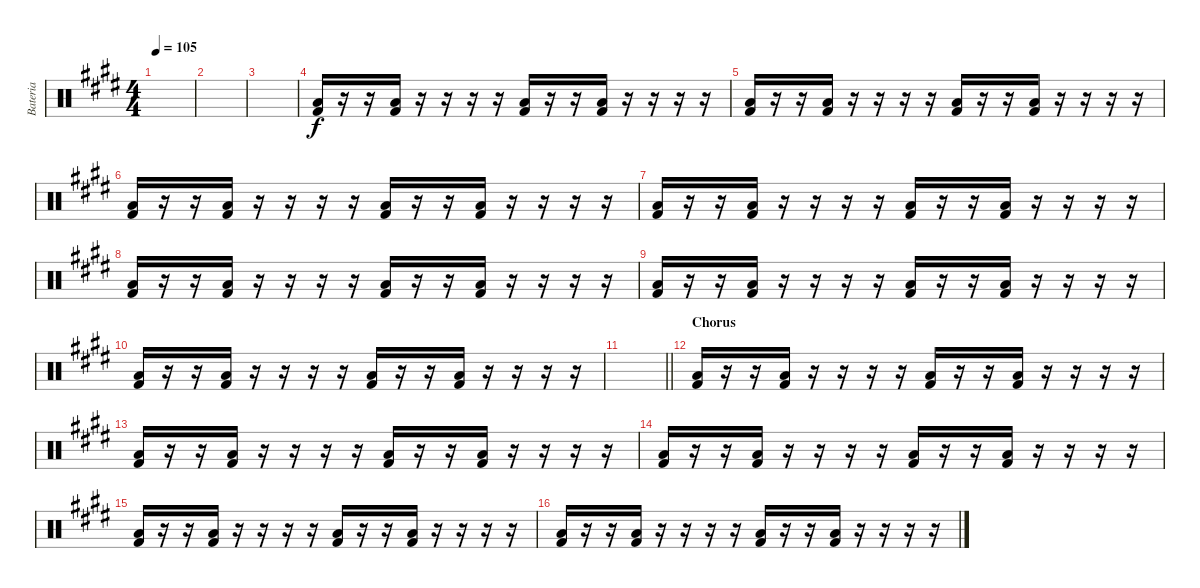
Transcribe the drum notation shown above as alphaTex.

\track ("Bateria" "Bateria") {instrument percussion}
\staff {score}
\articulation defaults
\ts (4 4)
\tempo 105
\clef neutral
\ks c#minor
|
|
|
("Low Floor Tom (hit)" "Kick (hit) 2").16 r.16 r.16 ("Low Floor Tom (hit)" "Kick (hit) 2").16 r.16 r.16 r.16 r.16 ("Low Floor Tom (hit)" "Kick (hit) 2").16 r.16 r.16 ("Low Floor Tom (hit)" "Kick (hit) 2").16 r.16 r.16 r.16 r.16 |
("Low Floor Tom (hit)" "Kick (hit) 2").16 r.16 r.16 ("Low Floor Tom (hit)" "Kick (hit) 2").16 r.16 r.16 r.16 r.16 ("Low Floor Tom (hit)" "Kick (hit) 2").16 r.16 r.16 ("Low Floor Tom (hit)" "Kick (hit) 2").16 r.16 r.16 r.16 r.16 |
("Low Floor Tom (hit)" "Kick (hit) 2").16 r.16 r.16 ("Low Floor Tom (hit)" "Kick (hit) 2").16 r.16 r.16 r.16 r.16 ("Low Floor Tom (hit)" "Kick (hit) 2").16 r.16 r.16 ("Low Floor Tom (hit)" "Kick (hit) 2").16 r.16 r.16 r.16 r.16 |
("Low Floor Tom (hit)" "Kick (hit) 2").16 r.16 r.16 ("Low Floor Tom (hit)" "Kick (hit) 2").16 r.16 r.16 r.16 r.16 ("Low Floor Tom (hit)" "Kick (hit) 2").16 r.16 r.16 ("Low Floor Tom (hit)" "Kick (hit) 2").16 r.16 r.16 r.16 r.16 |
("Low Floor Tom (hit)" "Kick (hit) 2").16 r.16 r.16 ("Low Floor Tom (hit)" "Kick (hit) 2").16 r.16 r.16 r.16 r.16 ("Low Floor Tom (hit)" "Kick (hit) 2").16 r.16 r.16 ("Low Floor Tom (hit)" "Kick (hit) 2").16 r.16 r.16 r.16 r.16 |
("Low Floor Tom (hit)" "Kick (hit) 2").16 r.16 r.16 ("Low Floor Tom (hit)" "Kick (hit) 2").16 r.16 r.16 r.16 r.16 ("Low Floor Tom (hit)" "Kick (hit) 2").16 r.16 r.16 ("Low Floor Tom (hit)" "Kick (hit) 2").16 r.16 r.16 r.16 r.16 |
("Low Floor Tom (hit)" "Kick (hit) 2").16 r.16 r.16 ("Low Floor Tom (hit)" "Kick (hit) 2").16 r.16 r.16 r.16 r.16 ("Low Floor Tom (hit)" "Kick (hit) 2").16 r.16 r.16 ("Low Floor Tom (hit)" "Kick (hit) 2").16 r.16 r.16 r.16 r.16 |
\barLineRight lightlight
|
\section ("" "Chorus")
("Low Floor Tom (hit)" "Kick (hit) 2").16 r.16 r.16 ("Low Floor Tom (hit)" "Kick (hit) 2").16 r.16 r.16 r.16 r.16 ("Low Floor Tom (hit)" "Kick (hit) 2").16 r.16 r.16 ("Low Floor Tom (hit)" "Kick (hit) 2").16 r.16 r.16 r.16 r.16 |
("Low Floor Tom (hit)" "Kick (hit) 2").16 r.16 r.16 ("Low Floor Tom (hit)" "Kick (hit) 2").16 r.16 r.16 r.16 r.16 ("Low Floor Tom (hit)" "Kick (hit) 2").16 r.16 r.16 ("Low Floor Tom (hit)" "Kick (hit) 2").16 r.16 r.16 r.16 r.16 |
("Low Floor Tom (hit)" "Kick (hit) 2").16 r.16 r.16 ("Low Floor Tom (hit)" "Kick (hit) 2").16 r.16 r.16 r.16 r.16 ("Low Floor Tom (hit)" "Kick (hit) 2").16 r.16 r.16 ("Low Floor Tom (hit)" "Kick (hit) 2").16 r.16 r.16 r.16 r.16 |
("Low Floor Tom (hit)" "Kick (hit) 2").16 r.16 r.16 ("Low Floor Tom (hit)" "Kick (hit) 2").16 r.16 r.16 r.16 r.16 ("Low Floor Tom (hit)" "Kick (hit) 2").16 r.16 r.16 ("Low Floor Tom (hit)" "Kick (hit) 2").16 r.16 r.16 r.16 r.16 |
("Low Floor Tom (hit)" "Kick (hit) 2").16 r.16 r.16 ("Low Floor Tom (hit)" "Kick (hit) 2").16 r.16 r.16 r.16 r.16 ("Low Floor Tom (hit)" "Kick (hit) 2").16 r.16 r.16 ("Low Floor Tom (hit)" "Kick (hit) 2").16 r.16 r.16 r.16 r.16
